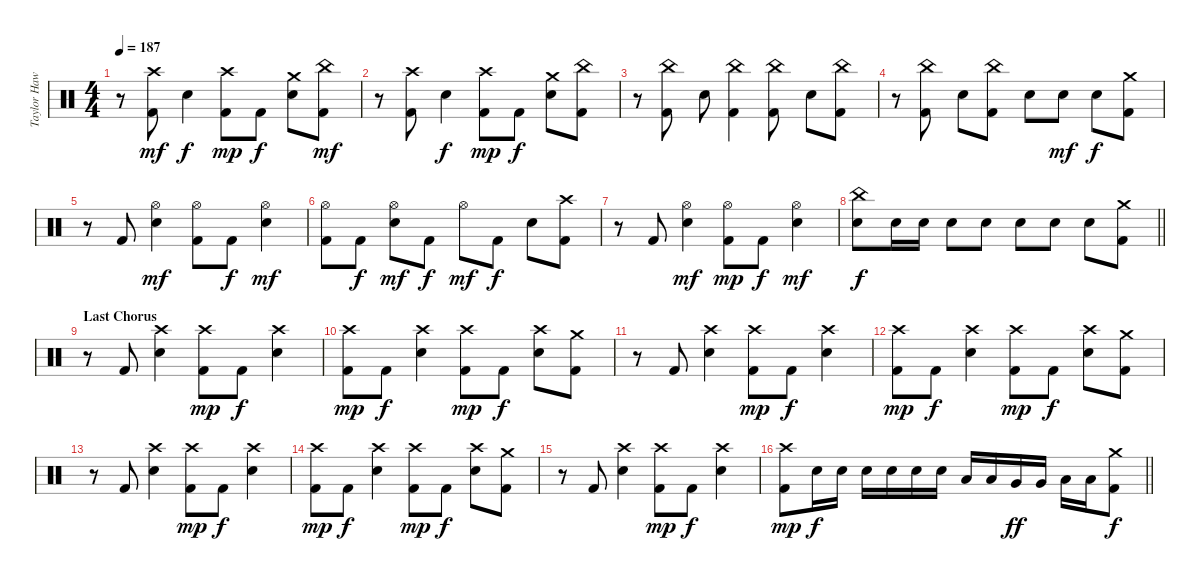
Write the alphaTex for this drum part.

\track ("Taylor Hawkins" "Taylor Haw") {instrument percussion}
\staff {score}
\articulation defaults
\ts (4 4)
\tempo 187
\clef neutral
\ks c
r.8{dy mf} ("Crash high (hit)" "Kick (hit) 2").8 "Snare (hit) 2".4{dy f} ("Crash high (hit)" "Kick (hit) 2").8{dy mp} "Kick (hit) 2".8{dy f} ("Crash medium (hit)" "Snare (hit) 2").8 ("China (hit)" "Kick (hit) 2").8{dy mf} |
r.8 ("Crash high (hit)" "Kick (hit) 2").8 "Snare (hit) 2".4{dy f} ("Crash high (hit)" "Kick (hit) 2").8{dy mp} "Kick (hit) 2".8{dy f} ("Crash medium (hit)" "Snare (hit) 2").8 ("China (hit)" "Kick (hit) 2").8 |
r.8 ("China (hit)" "Kick (hit) 2").8 "Snare (hit) 2".8 ("China (hit)" "Kick (hit) 2").4 ("China (hit)" "Kick (hit) 2").8 "Snare (hit) 2".8 ("China (hit)" "Kick (hit) 2").8 |
r.8 ("China (hit)" "Kick (hit) 2").8 "Snare (hit) 2".8 ("China (hit)" "Kick (hit) 2").8 "Snare (hit) 2".8 "Snare (hit) 2".8{dy mf} "Snare (hit) 2".8{dy f} ("Crash medium (hit)" "Kick (hit) 2").8 |
r.8 "Kick (hit) 2".8 ("Hi-Hat (open)" "Snare (hit) 2").4{dy mf} ("Hi-Hat (open)" "Kick (hit) 2").8 "Kick (hit) 2".8{dy f} ("Hi-Hat (open)" "Snare (hit) 2").4{dy mf} |
("Hi-Hat (open)" "Kick (hit) 2").8 "Kick (hit) 2".8{dy f} ("Hi-Hat (open)" "Snare (hit) 2").8{dy mf} "Kick (hit) 2".8{dy f} "Hi-Hat (open)".8{dy mf} "Kick (hit) 2".8{dy f} "Snare (hit) 2".8 ("Crash high (hit)" "Kick (hit) 2").8 |
r.8 "Kick (hit) 2".8 ("Hi-Hat (open)" "Snare (hit) 2").4{dy mf} ("Hi-Hat (open)" "Kick (hit) 2").8{dy mp} "Kick (hit) 2".8{dy f} ("Hi-Hat (open)" "Snare (hit) 2").4{dy mf} |
\barLineRight lightlight
("China (hit)" "Snare (hit) 2").8{dy f} "Snare (hit) 2".16 "Snare (hit) 2".16 "Snare (hit) 2".8 "Snare (hit) 2".8 "Snare (hit) 2".8 "Snare (hit) 2".8 "Snare (hit) 2".8 ("Crash medium (hit)" "Kick (hit) 2").8 |
\section ("" "Last Chorus")
r.8 "Kick (hit) 2".8 ("Crash high (hit)" "Snare (hit) 2").4 ("Crash high (hit)" "Kick (hit) 2").8{dy mp} "Kick (hit) 2".8{dy f} ("Crash high (hit)" "Snare (hit) 2").4 |
("Crash high (hit)" "Kick (hit) 2").8{dy mp} "Kick (hit) 2".8{dy f} ("Crash high (hit)" "Snare (hit) 2").4 ("Crash high (hit)" "Kick (hit) 2").8{dy mp} "Kick (hit) 2".8{dy f} ("Crash high (hit)" "Snare (hit) 2").8 ("Crash medium (hit)" "Kick (hit) 2").8 |
r.8 "Kick (hit) 2".8 ("Crash high (hit)" "Snare (hit) 2").4 ("Crash high (hit)" "Kick (hit) 2").8{dy mp} "Kick (hit) 2".8{dy f} ("Crash high (hit)" "Snare (hit) 2").4 |
("Crash high (hit)" "Kick (hit) 2").8{dy mp} "Kick (hit) 2".8{dy f} ("Crash high (hit)" "Snare (hit) 2").4 ("Crash high (hit)" "Kick (hit) 2").8{dy mp} "Kick (hit) 2".8{dy f} ("Crash high (hit)" "Snare (hit) 2").8 ("Crash medium (hit)" "Kick (hit) 2").8 |
r.8 "Kick (hit) 2".8 ("Crash high (hit)" "Snare (hit) 2").4 ("Crash high (hit)" "Kick (hit) 2").8{dy mp} "Kick (hit) 2".8{dy f} ("Crash high (hit)" "Snare (hit) 2").4 |
("Crash high (hit)" "Kick (hit) 2").8{dy mp} "Kick (hit) 2".8{dy f} ("Crash high (hit)" "Snare (hit) 2").4 ("Crash high (hit)" "Kick (hit) 2").8{dy mp} "Kick (hit) 2".8{dy f} ("Crash high (hit)" "Snare (hit) 2").8 ("Crash medium (hit)" "Kick (hit) 2").8 |
r.8 "Kick (hit) 2".8 ("Crash high (hit)" "Snare (hit) 2").4 ("Crash high (hit)" "Kick (hit) 2").8{dy mp} "Kick (hit) 2".8{dy f} ("Crash high (hit)" "Snare (hit) 2").4 |
\barLineRight lightlight
("Crash high (hit)" "Kick (hit) 2").8{dy mp} "Snare (hit) 2".16{dy f} "Snare (hit) 2".16 "Snare (hit) 2".16 "Snare (hit) 2".16 "Snare (hit) 2".16 "Snare (hit) 2".16 "Low Tom (hit)".16 "Low Tom (hit)".16 "Very Low Tom (hit)".16{dy ff} "Very Low Tom (hit)".16 "Low Floor Tom (hit)".16 "Low Floor Tom (hit)".16 ("Crash medium (hit)" "Kick (hit) 2").8{dy f}
